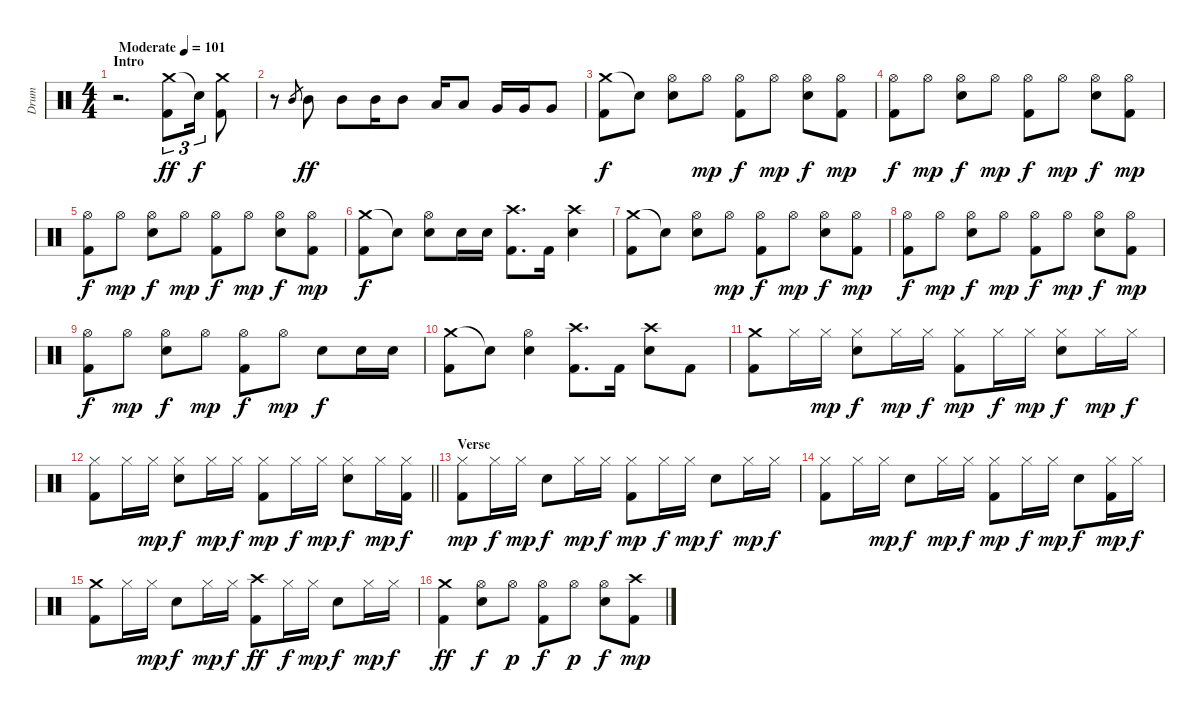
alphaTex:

\track ("Drum" "Drum") {instrument percussion}
\staff {score}
\articulation defaults
\ts (4 4)
\section ("" "Intro")
\tempo (101 "Moderate")
\clef neutral
\ks c
r.2{d dy ff} ("Crash medium (hit)" "Kick (hit) 2").8{tu (3 2)} "Snare (hit)"{t}.16{tu (3 2) dy f} ("Crash medium (hit)" "Kick (hit) 2").8 |
r.8 "Mid Tom (hit)".8{gr} "Mid Tom (hit)".8{dy ff} "Mid Tom (hit)".8 "Mid Tom (hit)".16 "Mid Tom (hit)".8 "Low Tom (hit)".16 "Low Tom (hit)".8 "Very Low Tom (hit)".16 "Very Low Tom (hit)".16 "Very Low Tom (hit)".8 |
("Crash medium (hit)" "Kick (hit) 2").8{dy f} "Snare (hit)"{t}.8 ("Hi-Hat (open)" "Snare (hit) 2").8 "Hi-Hat (open)".8{dy mp} ("Hi-Hat (open)" "Kick (hit) 2").8{dy f} "Hi-Hat (open)".8{dy mp} ("Hi-Hat (open)" "Snare (hit) 2").8{dy f} ("Hi-Hat (open)" "Kick (hit) 2").8{dy mp} |
("Hi-Hat (open)" "Kick (hit) 2").8{dy f} "Hi-Hat (open)".8{dy mp} ("Hi-Hat (open)" "Snare (hit) 2").8{dy f} "Hi-Hat (open)".8{dy mp} ("Hi-Hat (open)" "Kick (hit) 2").8{dy f} "Hi-Hat (open)".8{dy mp} ("Hi-Hat (open)" "Snare (hit) 2").8{dy f} ("Hi-Hat (open)" "Kick (hit) 2").8{dy mp} |
("Hi-Hat (open)" "Kick (hit) 2").8{dy f} "Hi-Hat (open)".8{dy mp} ("Hi-Hat (open)" "Snare (hit) 2").8{dy f} "Hi-Hat (open)".8{dy mp} ("Hi-Hat (open)" "Kick (hit) 2").8{dy f} "Hi-Hat (open)".8{dy mp} ("Hi-Hat (open)" "Snare (hit) 2").8{dy f} ("Hi-Hat (open)" "Kick (hit) 2").8{dy mp} |
("Crash medium (hit)" "Kick (hit) 2").8{dy f} "Snare (hit)"{t}.8 ("Hi-Hat (open)" "Snare (hit) 2").8 "Snare (hit) 2".16 "Snare (hit) 2".16 ("Crash high (hit)" "Kick (hit) 2").8{d} "Kick (hit) 2".16 ("Crash high (hit)" "Snare (hit) 2").4 |
("Crash medium (hit)" "Kick (hit) 2").8 "Snare (hit)"{t}.8 ("Hi-Hat (open)" "Snare (hit) 2").8 "Hi-Hat (open)".8{dy mp} ("Hi-Hat (open)" "Kick (hit) 2").8{dy f} "Hi-Hat (open)".8{dy mp} ("Hi-Hat (open)" "Snare (hit) 2").8{dy f} ("Hi-Hat (open)" "Kick (hit) 2").8{dy mp} |
("Hi-Hat (open)" "Kick (hit) 2").8{dy f} "Hi-Hat (open)".8{dy mp} ("Hi-Hat (open)" "Snare (hit) 2").8{dy f} "Hi-Hat (open)".8{dy mp} ("Hi-Hat (open)" "Kick (hit) 2").8{dy f} "Hi-Hat (open)".8{dy mp} ("Hi-Hat (open)" "Snare (hit) 2").8{dy f} ("Hi-Hat (open)" "Kick (hit) 2").8{dy mp} |
("Hi-Hat (open)" "Kick (hit) 2").8{dy f} "Hi-Hat (open)".8{dy mp} ("Hi-Hat (open)" "Snare (hit) 2").8{dy f} "Hi-Hat (open)".8{dy mp} ("Hi-Hat (open)" "Kick (hit) 2").8{dy f} "Hi-Hat (open)".8{dy mp} "Snare (hit) 2".8{dy f} "Snare (hit) 2".16 "Snare (hit) 2".16 |
("Crash medium (hit)" "Kick (hit) 2").8 "Snare (hit)"{t}.8 ("Hi-Hat (open)" "Snare (hit) 2").4 ("Crash high (hit)" "Kick (hit) 2").8{d} "Kick (hit) 2".16 ("Crash high (hit)" "Snare (hit) 2").8 "Kick (hit) 2".8 |
("Crash medium (hit)" "Kick (hit) 2").8 "Hi-Hat (closed)".16 "Hi-Hat (closed)".16{dy mp} ("Hi-Hat (closed)" "Snare (hit) 2").8{dy f} "Hi-Hat (closed)".16{dy mp} "Hi-Hat (closed)".16{dy f} ("Hi-Hat (closed)" "Kick (hit) 2").8{dy mp} "Hi-Hat (closed)".16{dy f} "Hi-Hat (closed)".16{dy mp} ("Hi-Hat (closed)" "Snare (hit) 2").8{dy f} "Hi-Hat (closed)".16{dy mp} "Hi-Hat (closed)".16{dy f} |
\barLineRight lightlight
("Hi-Hat (closed)" "Kick (hit) 2").8 "Hi-Hat (closed)".16 "Hi-Hat (closed)".16{dy mp} ("Hi-Hat (closed)" "Snare (hit) 2").8{dy f} "Hi-Hat (closed)".16{dy mp} "Hi-Hat (closed)".16{dy f} ("Hi-Hat (closed)" "Kick (hit) 2").8{dy mp} "Hi-Hat (closed)".16{dy f} "Hi-Hat (closed)".16{dy mp} ("Hi-Hat (closed)" "Snare (hit) 2").8{dy f} "Hi-Hat (closed)".16{dy mp} ("Hi-Hat (closed)" "Kick (hit) 2").16{dy f} |
\section ("" "Verse")
("Hi-Hat (closed)" "Kick (hit) 2").8{dy mp} "Hi-Hat (closed)".16{dy f} "Hi-Hat (closed)".16{dy mp} "Snare (hit) 2".8{dy f} "Hi-Hat (closed)".16{dy mp} "Hi-Hat (closed)".16{dy f} ("Hi-Hat (closed)" "Kick (hit) 2").8{dy mp} "Hi-Hat (closed)".16{dy f} "Hi-Hat (closed)".16{dy mp} "Snare (hit) 2".8{dy f} "Hi-Hat (closed)".16{dy mp} "Hi-Hat (closed)".16{dy f} |
("Hi-Hat (closed)" "Kick (hit) 2").8 "Hi-Hat (closed)".16 "Hi-Hat (closed)".16{dy mp} "Snare (hit) 2".8{dy f} "Hi-Hat (closed)".16{dy mp} "Hi-Hat (closed)".16{dy f} ("Hi-Hat (closed)" "Kick (hit) 2").8{dy mp} "Hi-Hat (closed)".16{dy f} "Hi-Hat (closed)".16{dy mp} "Snare (hit) 2".8{dy f} ("Hi-Hat (closed)" "Kick (hit) 2").16{dy mp} "Hi-Hat (closed)".16{dy f} |
("Crash medium (hit)" "Kick (hit) 2").8 "Hi-Hat (closed)".16 "Hi-Hat (closed)".16{dy mp} "Snare (hit) 2".8{dy f} "Hi-Hat (closed)".16{dy mp} "Hi-Hat (closed)".16{dy f} ("Crash high (hit)" "Kick (hit) 2").8{dy ff} "Hi-Hat (closed)".16{dy f} "Hi-Hat (closed)".16{dy mp} "Snare (hit) 2".8{dy f} "Hi-Hat (closed)".16{dy mp} "Hi-Hat (closed)".16{dy f} |
("Crash medium (hit)" "Kick (hit) 2").4{dy ff} ("Hi-Hat (open)" "Snare (hit) 2").8{dy f} "Hi-Hat (open)".8{dy p} ("Hi-Hat (open)" "Kick (hit) 2").8{dy f} "Hi-Hat (open)".8{dy p} ("Hi-Hat (open)" "Snare (hit) 2").8{dy f} ("Crash high (hit)" "Kick (hit) 2").8{dy mp}
